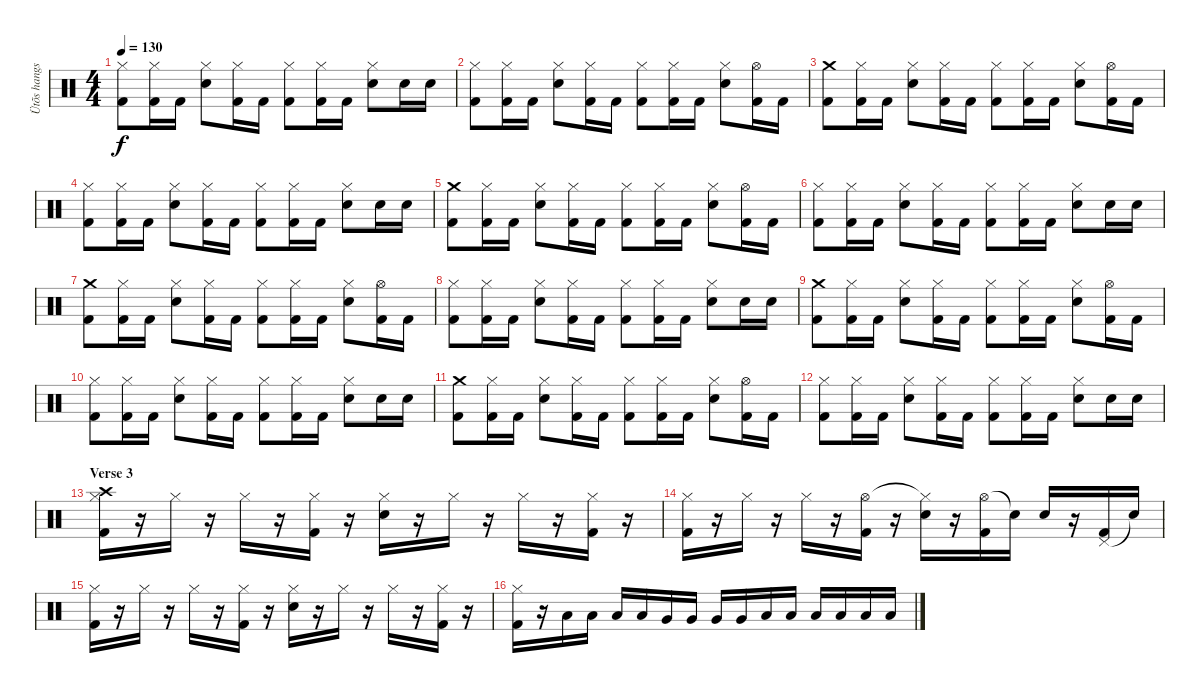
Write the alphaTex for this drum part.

\track ("Ütõs hangszer" "Ütõs hangs") {instrument percussion}
\staff {score}
\articulation defaults
\ts (4 4)
\tempo 130
\clef neutral
\ks c
("Hi-Hat (closed)" "Kick (hit) 2").8{dy f} ("Hi-Hat (closed)" "Kick (hit) 2").16 "Kick (hit) 2".16 ("Hi-Hat (closed)" "Snare (hit) 2").8 ("Hi-Hat (closed)" "Kick (hit) 2").16 "Kick (hit) 2".16 ("Hi-Hat (closed)" "Kick (hit) 2").8 ("Hi-Hat (closed)" "Kick (hit) 2").16 "Kick (hit) 2".16 ("Hi-Hat (closed)" "Snare (hit) 2").8 "Snare (hit) 2".16 "Snare (hit) 2".16 |
("Hi-Hat (closed)" "Kick (hit) 2").8 ("Hi-Hat (closed)" "Kick (hit) 2").16 "Kick (hit) 2".16 ("Hi-Hat (closed)" "Snare (hit) 2").8 ("Hi-Hat (closed)" "Kick (hit) 2").16 "Kick (hit) 2".16 ("Hi-Hat (closed)" "Kick (hit) 2").8 ("Hi-Hat (closed)" "Kick (hit) 2").16 "Kick (hit) 2".16 ("Hi-Hat (closed)" "Snare (hit) 2").8 ("Hi-Hat (open)" "Kick (hit) 2").16 "Kick (hit) 2".16 |
("Crash medium (hit)" "Kick (hit) 2").8 ("Hi-Hat (closed)" "Kick (hit) 2").16 "Kick (hit) 2".16 ("Hi-Hat (closed)" "Snare (hit) 2").8 ("Hi-Hat (closed)" "Kick (hit) 2").16 "Kick (hit) 2".16 ("Hi-Hat (closed)" "Kick (hit) 2").8 ("Hi-Hat (closed)" "Kick (hit) 2").16 "Kick (hit) 2".16 ("Hi-Hat (closed)" "Snare (hit) 2").8 ("Hi-Hat (open)" "Kick (hit) 2").16 "Kick (hit) 2".16 |
("Hi-Hat (closed)" "Kick (hit) 2").8 ("Hi-Hat (closed)" "Kick (hit) 2").16 "Kick (hit) 2".16 ("Hi-Hat (closed)" "Snare (hit) 2").8 ("Hi-Hat (closed)" "Kick (hit) 2").16 "Kick (hit) 2".16 ("Hi-Hat (closed)" "Kick (hit) 2").8 ("Hi-Hat (closed)" "Kick (hit) 2").16 "Kick (hit) 2".16 ("Hi-Hat (closed)" "Snare (hit) 2").8 "Snare (hit) 2".16 "Snare (hit) 2".16 |
("Crash medium (hit)" "Kick (hit) 2").8 ("Hi-Hat (closed)" "Kick (hit) 2").16 "Kick (hit) 2".16 ("Hi-Hat (closed)" "Snare (hit) 2").8 ("Hi-Hat (closed)" "Kick (hit) 2").16 "Kick (hit) 2".16 ("Hi-Hat (closed)" "Kick (hit) 2").8 ("Hi-Hat (closed)" "Kick (hit) 2").16 "Kick (hit) 2".16 ("Hi-Hat (closed)" "Snare (hit) 2").8 ("Hi-Hat (open)" "Kick (hit) 2").16 "Kick (hit) 2".16 |
("Hi-Hat (closed)" "Kick (hit) 2").8 ("Hi-Hat (closed)" "Kick (hit) 2").16 "Kick (hit) 2".16 ("Hi-Hat (closed)" "Snare (hit) 2").8 ("Hi-Hat (closed)" "Kick (hit) 2").16 "Kick (hit) 2".16 ("Hi-Hat (closed)" "Kick (hit) 2").8 ("Hi-Hat (closed)" "Kick (hit) 2").16 "Kick (hit) 2".16 ("Hi-Hat (closed)" "Snare (hit) 2").8 "Snare (hit) 2".16 "Snare (hit) 2".16 |
("Crash medium (hit)" "Kick (hit) 2").8 ("Hi-Hat (closed)" "Kick (hit) 2").16 "Kick (hit) 2".16 ("Hi-Hat (closed)" "Snare (hit) 2").8 ("Hi-Hat (closed)" "Kick (hit) 2").16 "Kick (hit) 2".16 ("Hi-Hat (closed)" "Kick (hit) 2").8 ("Hi-Hat (closed)" "Kick (hit) 2").16 "Kick (hit) 2".16 ("Hi-Hat (closed)" "Snare (hit) 2").8 ("Hi-Hat (open)" "Kick (hit) 2").16 "Kick (hit) 2".16 |
("Hi-Hat (closed)" "Kick (hit) 2").8 ("Hi-Hat (closed)" "Kick (hit) 2").16 "Kick (hit) 2".16 ("Hi-Hat (closed)" "Snare (hit) 2").8 ("Hi-Hat (closed)" "Kick (hit) 2").16 "Kick (hit) 2".16 ("Hi-Hat (closed)" "Kick (hit) 2").8 ("Hi-Hat (closed)" "Kick (hit) 2").16 "Kick (hit) 2".16 ("Hi-Hat (closed)" "Snare (hit) 2").8 "Snare (hit) 2".16 "Snare (hit) 2".16 |
("Crash medium (hit)" "Kick (hit) 2").8 ("Hi-Hat (closed)" "Kick (hit) 2").16 "Kick (hit) 2".16 ("Hi-Hat (closed)" "Snare (hit) 2").8 ("Hi-Hat (closed)" "Kick (hit) 2").16 "Kick (hit) 2".16 ("Hi-Hat (closed)" "Kick (hit) 2").8 ("Hi-Hat (closed)" "Kick (hit) 2").16 "Kick (hit) 2".16 ("Hi-Hat (closed)" "Snare (hit) 2").8 ("Hi-Hat (open)" "Kick (hit) 2").16 "Kick (hit) 2".16 |
("Hi-Hat (closed)" "Kick (hit) 2").8 ("Hi-Hat (closed)" "Kick (hit) 2").16 "Kick (hit) 2".16 ("Hi-Hat (closed)" "Snare (hit) 2").8 ("Hi-Hat (closed)" "Kick (hit) 2").16 "Kick (hit) 2".16 ("Hi-Hat (closed)" "Kick (hit) 2").8 ("Hi-Hat (closed)" "Kick (hit) 2").16 "Kick (hit) 2".16 ("Hi-Hat (closed)" "Snare (hit) 2").8 "Snare (hit) 2".16 "Snare (hit) 2".16 |
("Crash medium (hit)" "Kick (hit) 2").8 ("Hi-Hat (closed)" "Kick (hit) 2").16 "Kick (hit) 2".16 ("Hi-Hat (closed)" "Snare (hit) 2").8 ("Hi-Hat (closed)" "Kick (hit) 2").16 "Kick (hit) 2".16 ("Hi-Hat (closed)" "Kick (hit) 2").8 ("Hi-Hat (closed)" "Kick (hit) 2").16 "Kick (hit) 2".16 ("Hi-Hat (closed)" "Snare (hit) 2").8 ("Hi-Hat (open)" "Kick (hit) 2").16 "Kick (hit) 2".16 |
("Hi-Hat (closed)" "Kick (hit) 2").8 ("Hi-Hat (closed)" "Kick (hit) 2").16 "Kick (hit) 2".16 ("Hi-Hat (closed)" "Snare (hit) 2").8 ("Hi-Hat (closed)" "Kick (hit) 2").16 "Kick (hit) 2".16 ("Hi-Hat (closed)" "Kick (hit) 2").8 ("Hi-Hat (closed)" "Kick (hit) 2").16 "Kick (hit) 2".16 ("Hi-Hat (closed)" "Snare (hit) 2").8 "Snare (hit) 2".16 "Snare (hit) 2".16 |
\section ("" "Verse 3")
("Hi-Hat (closed)" "Crash high (hit)" "Kick (hit) 2").16 r.16 "Hi-Hat (closed)".16 r.16 "Hi-Hat (closed)".16 r.16 ("Hi-Hat (closed)" "Kick (hit) 2").16 r.16 ("Hi-Hat (closed)" "Snare (hit) 2").16 r.16 "Hi-Hat (closed)".16 r.16 "Hi-Hat (closed)".16 r.16 ("Hi-Hat (closed)" "Kick (hit) 2").16 r.16 |
("Hi-Hat (closed)" "Kick (hit) 2").16 r.16 "Hi-Hat (closed)".16 r.16 "Hi-Hat (closed)".16 r.16 ("Hi-Hat (open)" "Kick (hit) 2").16 r.16 ("Hi-Hat (closed)"{t} "Snare (hit) 2").16 r.16 ("Hi-Hat (open)" "Kick (hit) 2").16 "Snare (hit)"{t}.16 "Snare (hit) 2".16 r.16 ("Pedal Hi-Hat (hit)" "Kick (hit) 2").16 "Snare (hit)"{t}.16 |
("Hi-Hat (closed)" "Kick (hit) 2").16 r.16 "Hi-Hat (closed)".16 r.16 "Hi-Hat (closed)".16 r.16 ("Hi-Hat (closed)" "Kick (hit) 2").16 r.16 ("Hi-Hat (closed)" "Snare (hit) 2").16 r.16 "Hi-Hat (closed)".16 r.16 "Hi-Hat (closed)".16 r.16 ("Hi-Hat (closed)" "Kick (hit) 2").16 r.16 |
("Hi-Hat (closed)" "Kick (hit) 2").16 r.16 "Low Tom (hit)".16 "Low Tom (hit)".16 "Low Tom (hit)".16 "Low Tom (hit)".16 "Very Low Tom (hit)".16 "Very Low Tom (hit)".16 "Very Low Tom (hit)".16 "Very Low Tom (hit)".16 "Low Floor Tom (hit)".16 "Low Floor Tom (hit)".16 "Low Floor Tom (hit)".16 "Low Floor Tom (hit)".16 "Low Floor Tom (hit)".16 "Low Floor Tom (hit)".16
